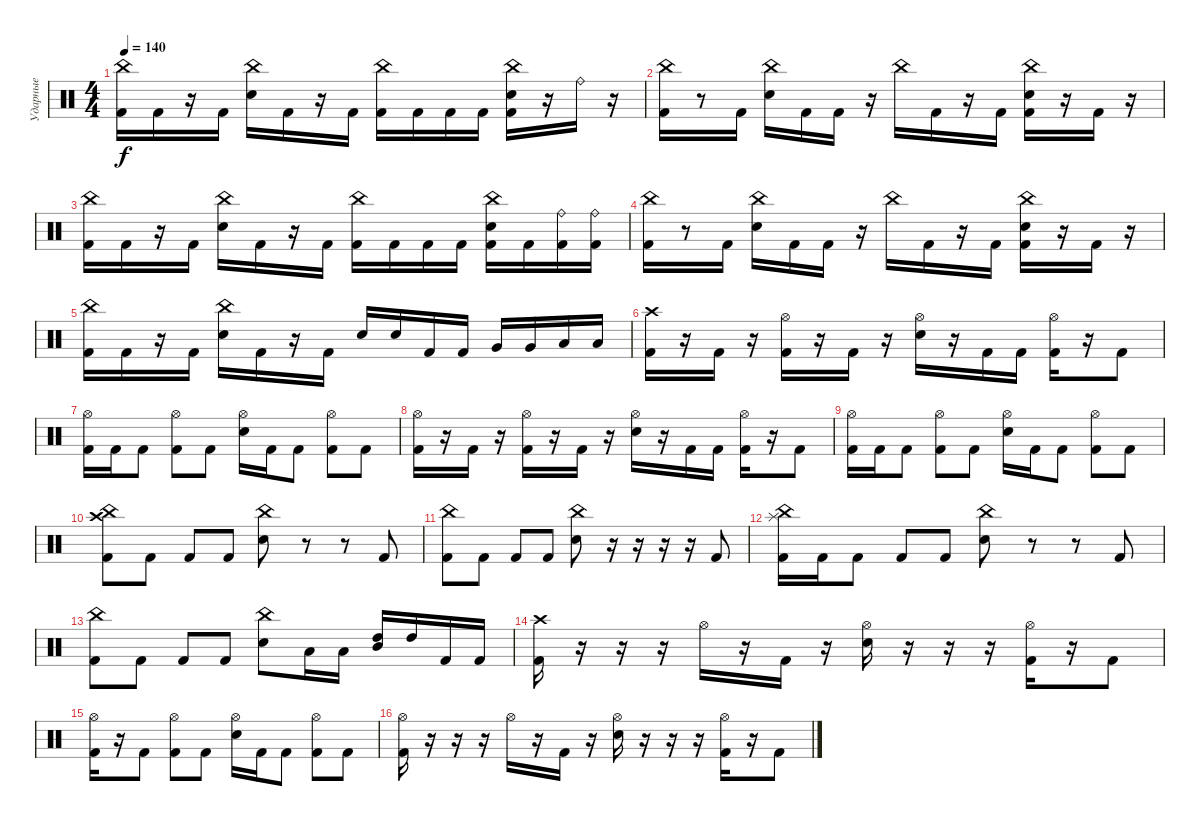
\track ("Ударные" "Ударные") {instrument percussion}
\staff {score}
\articulation defaults
\ts (4 4)
\tempo 140
\clef neutral
\ks c
("China (hit)" "Kick (hit) 2").16{dy f} "Kick (hit) 2".16 r.16 "Kick (hit) 2".16 ("Electric Snare (hit)" "China (hit)").16 "Kick (hit) 2".16 r.16 "Kick (hit) 2".16 ("Kick (hit) 2" "China (hit)").16 "Kick (hit) 2".16 "Kick (hit) 2".16 "Kick (hit) 2".16 ("Kick (hit) 2" "China (hit)" "Electric Snare (hit)").16 r.16 "Ride (bell)".16 r.16 |
("Kick (hit) 2" "China (hit)").16 r.8 "Kick (hit) 2".16 ("Electric Snare (hit)" "China (hit)").16 "Kick (hit) 2".16 "Kick (hit) 2".16 r.16 "China (hit)".16 "Kick (hit) 2".16 r.16 "Kick (hit) 2".16 ("Kick (hit) 2" "Electric Snare (hit)" "China (hit)").16 r.16 "Kick (hit) 2".16 r.16 |
("China (hit)" "Kick (hit) 2").16 "Kick (hit) 2".16 r.16 "Kick (hit) 2".16 ("Electric Snare (hit)" "China (hit)").16 "Kick (hit) 2".16 r.16 "Kick (hit) 2".16 ("Kick (hit) 2" "China (hit)").16 "Kick (hit) 2".16 "Kick (hit) 2".16 "Kick (hit) 2".16 ("Kick (hit) 2" "China (hit)" "Electric Snare (hit)").16 "Kick (hit) 2".16 ("Kick (hit) 2" "Ride (bell)").16 ("Kick (hit) 2" "Ride (bell)").16 |
("Kick (hit) 2" "China (hit)").16 r.8 "Kick (hit) 2".16 ("Snare (hit) 2" "China (hit)").16 "Kick (hit) 2".16 "Kick (hit) 2".16 r.16 "China (hit)".16 "Kick (hit) 2".16 r.16 "Kick (hit) 2".16 ("Kick (hit) 2" "Snare (hit) 2" "China (hit)").16 r.16 "Kick (hit) 2".16 r.16 |
("China (hit)" "Kick (hit) 2").16 "Kick (hit) 2".16 r.16 "Kick (hit) 2".16 ("Electric Snare (hit)" "China (hit)").16 "Kick (hit) 2".16 r.16 "Kick (hit) 2".16 "Electric Snare (hit)".16 "Electric Snare (hit)".16 "Kick (hit) 2".16 "Kick (hit) 2".16 "Very Low Tom (hit)".16 "Very Low Tom (hit)".16 "Low Floor Tom (hit)".16 "Low Floor Tom (hit)".16 |
("Crash high (hit)" "Kick (hit) 2").16 r.16 "Kick (hit) 2".16 r.16 ("Hi-Hat (open)" "Kick (hit) 2").16 r.16 "Kick (hit) 2".16 r.16 ("Hi-Hat (open)" "Electric Snare (hit)").16 r.16 "Kick (hit) 2".16 "Kick (hit) 2".16 ("Hi-Hat (open)" "Kick (hit) 2").16 r.16 "Kick (hit) 2".8 |
("Hi-Hat (open)" "Kick (hit) 2").16 "Kick (hit) 2".16 "Kick (hit) 2".8 ("Hi-Hat (open)" "Kick (hit) 2").8 "Kick (hit) 2".8 ("Hi-Hat (open)" "Electric Snare (hit)").16 "Kick (hit) 2".16 "Kick (hit) 2".8 ("Hi-Hat (open)" "Kick (hit) 2").8 "Kick (hit) 2".8 |
("Hi-Hat (open)" "Kick (hit) 2").16 r.16 "Kick (hit) 2".16 r.16 ("Hi-Hat (open)" "Kick (hit) 2").16 r.16 "Kick (hit) 2".16 r.16 ("Hi-Hat (open)" "Electric Snare (hit)").16 r.16 "Kick (hit) 2".16 "Kick (hit) 2".16 ("Hi-Hat (open)" "Kick (hit) 2").16 r.16 "Kick (hit) 2".8 |
("Hi-Hat (open)" "Kick (hit) 2").16 "Kick (hit) 2".16 "Kick (hit) 2".8 ("Hi-Hat (open)" "Kick (hit) 2").8 "Kick (hit) 2".8 ("Hi-Hat (open)" "Electric Snare (hit)").16 "Kick (hit) 2".16 "Kick (hit) 2".8 ("Hi-Hat (open)" "Kick (hit) 2").8 "Kick (hit) 2".8 |
("Crash high (hit)" "China (hit)" "Kick (hit) 2").8 "Kick (hit) 2".8 "Kick (hit) 2".8 "Kick (hit) 2".8 ("China (hit)" "Electric Snare (hit)").8 r.8 r.8 "Kick (hit) 2".8 |
("China (hit)" "Kick (hit) 2").8 "Kick (hit) 2".8 "Kick (hit) 2".8 "Kick (hit) 2".8 ("China (hit)" "Electric Snare (hit)").8 r.16 r.16 r.16 r.16 "Kick (hit) 2".8 |
("Splash (hit)" "China (hit)" "Kick (hit) 2").16 "Kick (hit) 2".16 "Kick (hit) 2".8 "Kick (hit) 2".8 "Kick (hit) 2".8 ("China (hit)" "Electric Snare (hit)").8 r.8 r.8 "Kick (hit) 2".8 |
("China (hit)" "Kick (hit) 2").8 "Kick (hit) 2".8 "Kick (hit) 2".8 "Kick (hit) 2".8 ("China (hit)" "Electric Snare (hit)").8 "Low Tom (hit)".16 "Low Tom (hit)".16 ("Mid Tom (hit)" "High Tom (hit)").16 "High Tom (hit)".16 "Kick (hit) 2".16 "Kick (hit) 2".16 |
("Crash high (hit)" "Kick (hit) 2").16 r.16 r.16 r.16 "Hi-Hat (open)".16 r.16 "Kick (hit) 2".16 r.16 ("Hi-Hat (open)" "Electric Snare (hit)").16 r.16 r.16 r.16 ("Hi-Hat (open)" "Kick (hit) 2").16 r.16 "Kick (hit) 2".8 |
("Hi-Hat (open)" "Kick (hit) 2").16 r.16 "Kick (hit) 2".8 ("Hi-Hat (open)" "Kick (hit) 2").8 "Kick (hit) 2".8 ("Hi-Hat (open)" "Electric Snare (hit)").16 "Kick (hit) 2".16 "Kick (hit) 2".8 ("Hi-Hat (open)" "Kick (hit) 2").8 "Kick (hit) 2".8 |
("Hi-Hat (open)" "Kick (hit) 2").16 r.16 r.16 r.16 "Hi-Hat (open)".16 r.16 "Kick (hit) 2".16 r.16 ("Hi-Hat (open)" "Electric Snare (hit)").16 r.16 r.16 r.16 ("Hi-Hat (open)" "Kick (hit) 2").16 r.16 "Kick (hit) 2".8
